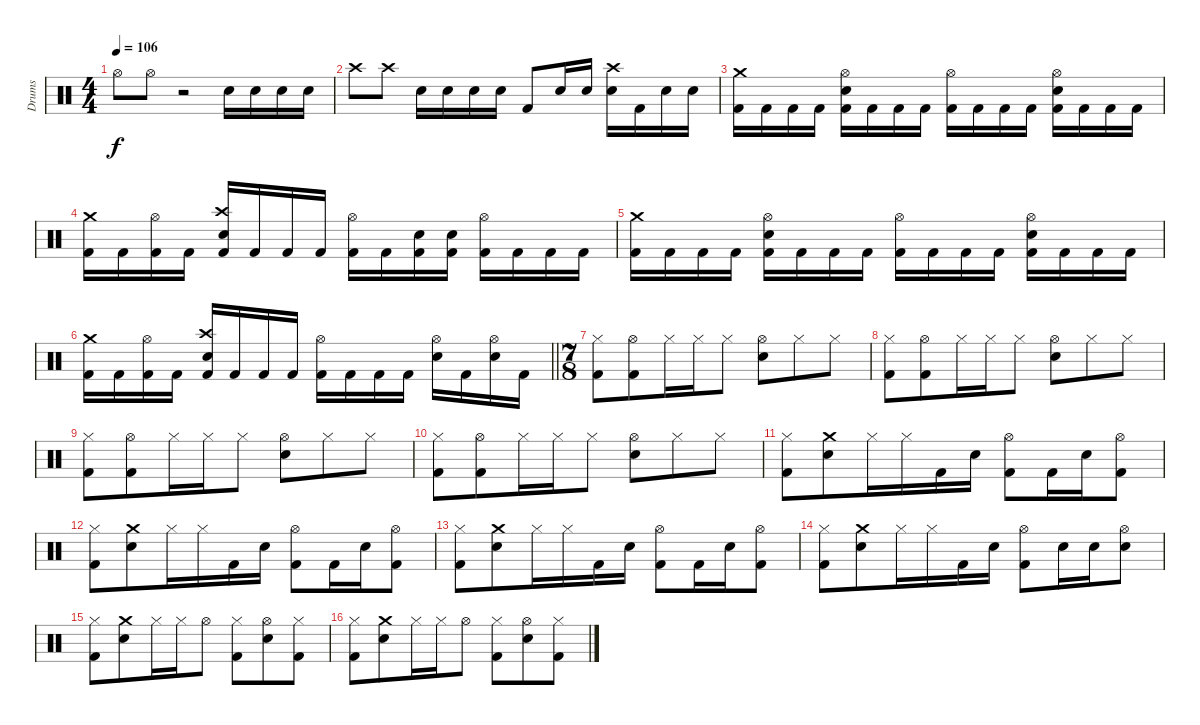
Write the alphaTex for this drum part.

\track ("Drums" "Drums") {instrument percussion}
\staff {score}
\articulation defaults
\ts (4 4)
\tempo 106
\clef neutral
\ks c "Hi-Hat (open)".8{dy f} "Hi-Hat (open)".8
r.2 "Electric Snare (hit)".16 "Electric Snare (hit)".16 "Electric Snare (hit)".16 "Electric Snare (hit)".16 |
"Crash high (hit)".8 "Crash high (hit)".8 "Electric Snare (hit)".16 "Electric Snare (hit)".16 "Electric Snare (hit)".16 "Electric Snare (hit)".16 "Kick (hit) 2".8 "Electric Snare (hit)".16 "Electric Snare (hit)".16 ("Crash high (hit)" "Electric Snare (hit)").16 "Kick (hit) 2".16 "Electric Snare (hit)".16 "Electric Snare (hit)".16 |
("Crash medium (hit)" "Kick (hit) 2").16 "Kick (hit) 2".16 "Kick (hit) 2".16 "Kick (hit) 2".16 ("Hi-Hat (open)" "Electric Snare (hit)" "Kick (hit) 2").16 "Kick (hit) 2".16 "Kick (hit) 2".16 "Kick (hit) 2".16 ("Hi-Hat (open)" "Kick (hit) 2").16 "Kick (hit) 2".16 "Kick (hit) 2".16 "Kick (hit) 2".16 ("Hi-Hat (open)" "Electric Snare (hit)" "Kick (hit) 2").16 "Kick (hit) 2".16 "Kick (hit) 2".16 "Kick (hit) 2".16 |
("Crash medium (hit)" "Kick (hit) 2").16 "Kick (hit) 2".16 ("Hi-Hat (open)" "Kick (hit) 2").16 "Kick (hit) 2".16 ("Crash high (hit)" "Electric Snare (hit)" "Kick (hit) 2").16 "Kick (hit) 2".16 "Kick (hit) 2".16 "Kick (hit) 2".16 ("Hi-Hat (open)" "Kick (hit) 2").16 "Kick (hit) 2".16 ("Electric Snare (hit)" "Kick (hit) 2").16 ("Electric Snare (hit)" "Kick (hit) 2").16 ("Hi-Hat (open)" "Kick (hit) 2").16 "Kick (hit) 2".16 "Kick (hit) 2".16 "Kick (hit) 2".16 |
("Crash medium (hit)" "Kick (hit) 2").16 "Kick (hit) 2".16 "Kick (hit) 2".16 "Kick (hit) 2".16 ("Hi-Hat (open)" "Electric Snare (hit)" "Kick (hit) 2").16 "Kick (hit) 2".16 "Kick (hit) 2".16 "Kick (hit) 2".16 ("Hi-Hat (open)" "Kick (hit) 2").16 "Kick (hit) 2".16 "Kick (hit) 2".16 "Kick (hit) 2".16 ("Hi-Hat (open)" "Electric Snare (hit)" "Kick (hit) 2").16 "Kick (hit) 2".16 "Kick (hit) 2".16 "Kick (hit) 2".16 |
\barLineRight lightlight
("Crash medium (hit)" "Kick (hit) 2").16 "Kick (hit) 2".16 ("Hi-Hat (open)" "Kick (hit) 2").16 "Kick (hit) 2".16 ("Crash high (hit)" "Electric Snare (hit)" "Kick (hit) 2").16 "Kick (hit) 2".16 "Kick (hit) 2".16 "Kick (hit) 2".16 ("Hi-Hat (open)" "Kick (hit) 2").16 "Kick (hit) 2".16 "Kick (hit) 2".16 "Kick (hit) 2".16 ("Hi-Hat (open)" "Electric Snare (hit)").16 "Kick (hit) 2".16 ("Hi-Hat (open)" "Electric Snare (hit)").16 "Kick (hit) 2".16 |
\ts (7 8)
\section ("" "")
\ks aminor
("Hi-Hat (closed)" "Kick (hit) 2").8 ("Hi-Hat (open)" "Kick (hit) 2").8 "Hi-Hat (closed)".16 "Hi-Hat (closed)".16 "Hi-Hat (closed)".8 ("Hi-Hat (open)" "Electric Snare (hit)").8 "Hi-Hat (closed)".8 "Hi-Hat (closed)".8 |
("Hi-Hat (closed)" "Kick (hit) 2").8 ("Hi-Hat (open)" "Kick (hit) 2").8 "Hi-Hat (closed)".16 "Hi-Hat (closed)".16 "Hi-Hat (closed)".8 ("Hi-Hat (open)" "Electric Snare (hit)").8 "Hi-Hat (closed)".8 "Hi-Hat (closed)".8 |
("Hi-Hat (closed)" "Kick (hit) 2").8 ("Hi-Hat (open)" "Kick (hit) 2").8 "Hi-Hat (closed)".16 "Hi-Hat (closed)".16 "Hi-Hat (closed)".8 ("Hi-Hat (open)" "Electric Snare (hit)").8 "Hi-Hat (closed)".8 "Hi-Hat (closed)".8 |
("Hi-Hat (closed)" "Kick (hit) 2").8 ("Hi-Hat (open)" "Kick (hit) 2").8 "Hi-Hat (closed)".16 "Hi-Hat (closed)".16 "Hi-Hat (closed)".8 ("Hi-Hat (open)" "Electric Snare (hit)").8 "Hi-Hat (closed)".8 "Hi-Hat (closed)".8 |
("Hi-Hat (closed)" "Kick (hit) 2").8 ("Crash medium (hit)" "Electric Snare (hit)").8 "Hi-Hat (closed)".16 "Hi-Hat (closed)".16 "Kick (hit) 2".16 "Electric Snare (hit)".16 ("Hi-Hat (open)" "Kick (hit) 2").8 "Kick (hit) 2".16 "Electric Snare (hit)".16 ("Hi-Hat (open)" "Kick (hit) 2").8 |
("Hi-Hat (closed)" "Kick (hit) 2").8 ("Crash medium (hit)" "Electric Snare (hit)").8 "Hi-Hat (closed)".16 "Hi-Hat (closed)".16 "Kick (hit) 2".16 "Electric Snare (hit)".16 ("Hi-Hat (open)" "Kick (hit) 2").8 "Kick (hit) 2".16 "Electric Snare (hit)".16 ("Hi-Hat (open)" "Kick (hit) 2").8 |
("Hi-Hat (closed)" "Kick (hit) 2").8 ("Crash medium (hit)" "Electric Snare (hit)").8 "Hi-Hat (closed)".16 "Hi-Hat (closed)".16 "Kick (hit) 2".16 "Electric Snare (hit)".16 ("Hi-Hat (open)" "Kick (hit) 2").8 "Kick (hit) 2".16 "Electric Snare (hit)".16 ("Hi-Hat (open)" "Kick (hit) 2").8 |
("Hi-Hat (closed)" "Kick (hit) 2").8 ("Crash medium (hit)" "Electric Snare (hit)").8 "Hi-Hat (closed)".16 "Hi-Hat (closed)".16 "Kick (hit) 2".16 "Electric Snare (hit)".16 ("Hi-Hat (open)" "Kick (hit) 2").8 "Electric Snare (hit)".16 "Electric Snare (hit)".16 ("Hi-Hat (open)" "Electric Snare (hit)").8 |
("Hi-Hat (closed)" "Kick (hit) 2").8 ("Crash medium (hit)" "Electric Snare (hit)").8 "Hi-Hat (closed)".16 "Hi-Hat (closed)".16 "Hi-Hat (open)".8 ("Hi-Hat (closed)" "Kick (hit) 2").8 ("Hi-Hat (open)" "Electric Snare (hit)").8 ("Hi-Hat (closed)" "Kick (hit) 2").8 |
("Hi-Hat (closed)" "Kick (hit) 2").8 ("Crash medium (hit)" "Electric Snare (hit)").8 "Hi-Hat (closed)".16 "Hi-Hat (closed)".16 "Hi-Hat (open)".8 ("Hi-Hat (closed)" "Kick (hit) 2").8 ("Hi-Hat (open)" "Electric Snare (hit)").8 ("Hi-Hat (closed)" "Kick (hit) 2").8
